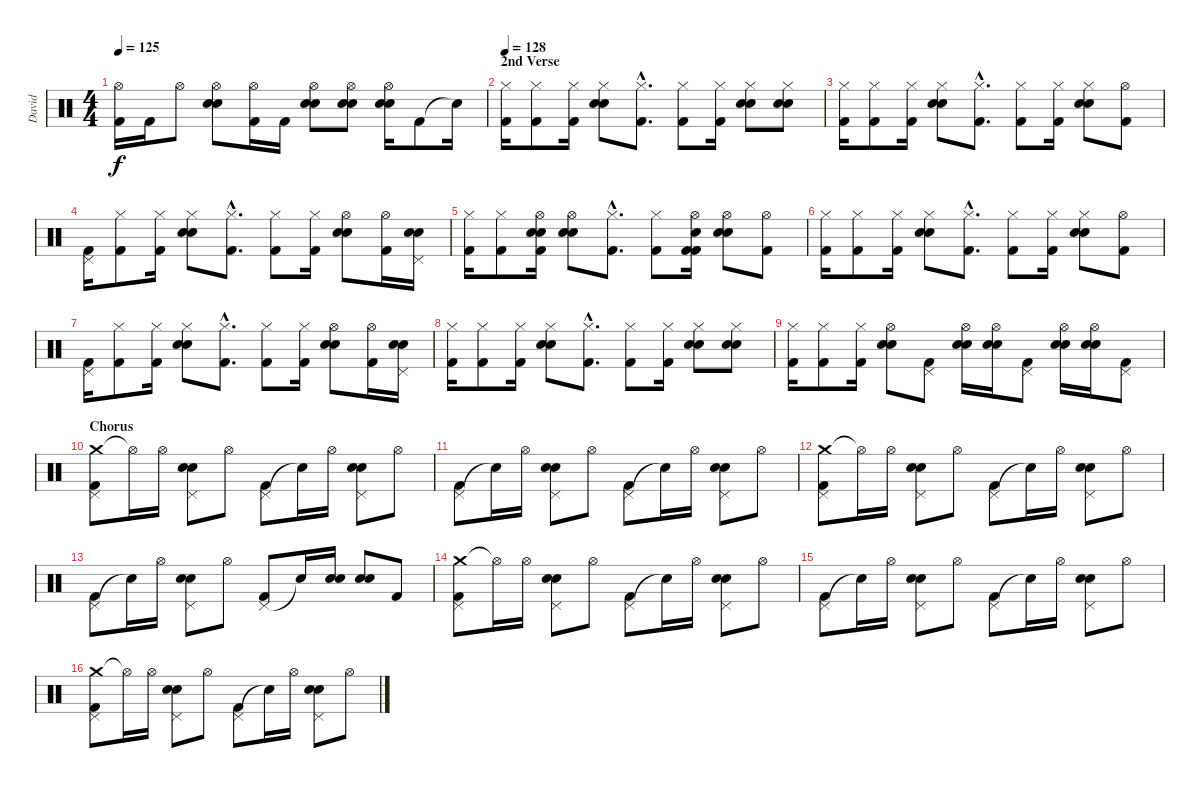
\track ("David" "David") {instrument percussion}
\staff {score}
\articulation defaults
\ts (4 4)
\tempo 125
\clef neutral
\ks c
("Hi-Hat (open)" "Kick (hit) 2").16{dy f} "Kick (hit) 2".16 "Hi-Hat (open)".8 ("Hi-Hat (open)" "Electric Snare (hit)" "Snare (hit) 2").8 ("Hi-Hat (open)" "Kick (hit) 2").16 "Kick (hit) 2".16 ("Hi-Hat (open)" "Electric Snare (hit)" "Snare (hit) 2").8 ("Hi-Hat (open)" "Electric Snare (hit)" "Snare (hit) 2").8 ("Hi-Hat (open)" "Electric Snare (hit)" "Snare (hit) 2").16 "Kick (hit) 2".8 "Snare (hit)"{t}.16 |
\section ("" "2nd Verse ")
\tempo 128
("Hi-Hat (closed)" "Kick (hit) 2").16 ("Hi-Hat (closed)" "Kick (hit) 2").8 ("Hi-Hat (closed)" "Kick (hit) 2").16 ("Hi-Hat (closed)" "Electric Snare (hit)" "Snare (hit) 2").8 ("Hi-Hat (closed)"{hac} "Kick (hit) 2"{hac}).8{d} ("Hi-Hat (closed)" "Kick (hit) 2").8 ("Hi-Hat (closed)" "Kick (hit) 2").16 ("Hi-Hat (closed)" "Electric Snare (hit)" "Snare (hit) 2").8 ("Hi-Hat (closed)" "Electric Snare (hit)" "Snare (hit) 2").8 |
("Hi-Hat (closed)" "Kick (hit) 2").16 ("Hi-Hat (closed)" "Kick (hit) 2").8 ("Hi-Hat (closed)" "Kick (hit) 2").16 ("Hi-Hat (closed)" "Electric Snare (hit)" "Snare (hit) 2").8 ("Hi-Hat (closed)"{hac} "Kick (hit) 2"{hac}).8{d} ("Hi-Hat (closed)" "Kick (hit) 2").8 ("Hi-Hat (closed)" "Kick (hit) 2").16 ("Hi-Hat (closed)" "Electric Snare (hit)" "Snare (hit) 2").8 ("Hi-Hat (open)" "Kick (hit) 2").8 |
("Pedal Hi-Hat (hit)" "Kick (hit) 2").16 ("Hi-Hat (closed)" "Kick (hit) 2").8 ("Hi-Hat (closed)" "Kick (hit) 2").16 ("Hi-Hat (closed)" "Electric Snare (hit)" "Snare (hit) 2").8 ("Hi-Hat (closed)"{hac} "Kick (hit) 2"{hac}).8{d} ("Hi-Hat (closed)" "Kick (hit) 2").8 ("Hi-Hat (closed)" "Kick (hit) 2").16 ("Hi-Hat (open)" "Electric Snare (hit)" "Snare (hit) 2").8 ("Hi-Hat (open)" "Kick (hit) 2").16 ("Pedal Hi-Hat (hit)" "Electric Snare (hit)" "Snare (hit) 2").16 |
("Hi-Hat (closed)" "Kick (hit) 2").16 ("Hi-Hat (closed)" "Kick (hit) 2").8 ("Snare (hit) 2" "Hi-Hat (open)" "Electric Snare (hit)" "Kick (hit) 2").16 ("Hi-Hat (open)" "Electric Snare (hit)" "Snare (hit) 2").8 ("Hi-Hat (closed)"{hac} "Kick (hit) 2"{hac}).8{d} ("Hi-Hat (closed)" "Kick (hit) 2").8 ("Kick (hit) 2" "Hi-Hat (open)" "Electric Snare (hit)" "Kick (hit) 2").16 ("Hi-Hat (open)" "Electric Snare (hit)" "Snare (hit) 2").8 ("Hi-Hat (open)" "Kick (hit) 2").8 |
("Hi-Hat (closed)" "Kick (hit) 2").16 ("Hi-Hat (closed)" "Kick (hit) 2").8 ("Hi-Hat (closed)" "Kick (hit) 2").16 ("Hi-Hat (closed)" "Electric Snare (hit)" "Snare (hit) 2").8 ("Hi-Hat (closed)"{hac} "Kick (hit) 2"{hac}).8{d} ("Hi-Hat (closed)" "Kick (hit) 2").8 ("Hi-Hat (closed)" "Kick (hit) 2").16 ("Hi-Hat (closed)" "Electric Snare (hit)" "Snare (hit) 2").8 ("Hi-Hat (open)" "Kick (hit) 2").8 |
("Pedal Hi-Hat (hit)" "Kick (hit) 2").16 ("Hi-Hat (closed)" "Kick (hit) 2").8 ("Hi-Hat (closed)" "Kick (hit) 2").16 ("Hi-Hat (closed)" "Electric Snare (hit)" "Snare (hit) 2").8 ("Hi-Hat (closed)"{hac} "Kick (hit) 2"{hac}).8{d} ("Hi-Hat (closed)" "Kick (hit) 2").8 ("Hi-Hat (closed)" "Kick (hit) 2").16 ("Hi-Hat (open)" "Electric Snare (hit)" "Snare (hit) 2").8 ("Hi-Hat (open)" "Kick (hit) 2").16 ("Pedal Hi-Hat (hit)" "Electric Snare (hit)" "Snare (hit) 2").16 |
("Hi-Hat (closed)" "Kick (hit) 2").16 ("Hi-Hat (closed)" "Kick (hit) 2").8 ("Hi-Hat (closed)" "Kick (hit) 2").16 ("Hi-Hat (closed)" "Electric Snare (hit)" "Snare (hit) 2").8 ("Hi-Hat (closed)"{hac} "Kick (hit) 2"{hac}).8{d} ("Hi-Hat (closed)" "Kick (hit) 2").8 ("Hi-Hat (closed)" "Kick (hit) 2").16 ("Hi-Hat (closed)" "Electric Snare (hit)" "Snare (hit) 2").8 ("Hi-Hat (closed)" "Electric Snare (hit)" "Snare (hit) 2").8 |
("Hi-Hat (closed)" "Kick (hit) 2").16 ("Hi-Hat (closed)" "Kick (hit) 2").8 ("Hi-Hat (closed)" "Kick (hit) 2").16 ("Hi-Hat (open)" "Electric Snare (hit)" "Snare (hit) 2").8 ("Pedal Hi-Hat (hit)" "Kick (hit) 2").8 ("Hi-Hat (open)" "Electric Snare (hit)" "Snare (hit) 2").16 ("Hi-Hat (open)" "Electric Snare (hit)" "Snare (hit) 2").16 ("Pedal Hi-Hat (hit)" "Kick (hit) 2").8 ("Hi-Hat (open)" "Electric Snare (hit)" "Snare (hit) 2").16 ("Hi-Hat (open)" "Electric Snare (hit)" "Snare (hit) 2").16 ("Pedal Hi-Hat (hit)" "Kick (hit) 2").8 |
\section ("" "Chorus")
("Crash medium (hit)" "Pedal Hi-Hat (hit)" "Kick (hit) 2").8 "Hi-Hat (open)"{t}.16 "Hi-Hat (open)".16 ("Electric Snare (hit)" "Snare (hit) 2" "Pedal Hi-Hat (hit)").8 "Hi-Hat (open)".8 ("Pedal Hi-Hat (hit)" "Kick (hit) 2").8 "Snare (hit)"{t}.16 "Hi-Hat (open)".16 ("Snare (hit) 2" "Electric Snare (hit)" "Pedal Hi-Hat (hit)").8 "Hi-Hat (open)".8 |
("Pedal Hi-Hat (hit)" "Kick (hit) 2").8 "Snare (hit)"{t}.16 "Hi-Hat (open)".16 ("Electric Snare (hit)" "Snare (hit) 2" "Pedal Hi-Hat (hit)").8 "Hi-Hat (open)".8 ("Pedal Hi-Hat (hit)" "Kick (hit) 2").8 "Snare (hit)"{t}.16 "Hi-Hat (open)".16 ("Snare (hit) 2" "Electric Snare (hit)" "Pedal Hi-Hat (hit)").8 "Hi-Hat (open)".8 |
("Crash medium (hit)" "Pedal Hi-Hat (hit)" "Kick (hit) 2").8 "Hi-Hat (open)"{t}.16 "Hi-Hat (open)".16 ("Electric Snare (hit)" "Snare (hit) 2" "Pedal Hi-Hat (hit)").8 "Hi-Hat (open)".8 ("Pedal Hi-Hat (hit)" "Kick (hit) 2").8 "Snare (hit)"{t}.16 "Hi-Hat (open)".16 ("Snare (hit) 2" "Electric Snare (hit)" "Pedal Hi-Hat (hit)").8 "Hi-Hat (open)".8 |
("Pedal Hi-Hat (hit)" "Kick (hit) 2").8 "Snare (hit)"{t}.16 "Hi-Hat (open)".16 ("Electric Snare (hit)" "Snare (hit) 2" "Pedal Hi-Hat (hit)").8 "Hi-Hat (open)".8 ("Pedal Hi-Hat (hit)" "Kick (hit) 2").8 "Snare (hit)"{t}.16 ("Snare (hit) 2" "Electric Snare (hit)").16 ("Snare (hit) 2" "Electric Snare (hit)").8 "Kick (hit) 2".8 |
("Crash medium (hit)" "Pedal Hi-Hat (hit)" "Kick (hit) 2").8 "Hi-Hat (open)"{t}.16 "Hi-Hat (open)".16 ("Electric Snare (hit)" "Snare (hit) 2" "Pedal Hi-Hat (hit)").8 "Hi-Hat (open)".8 ("Pedal Hi-Hat (hit)" "Kick (hit) 2").8 "Snare (hit)"{t}.16 "Hi-Hat (open)".16 ("Snare (hit) 2" "Electric Snare (hit)" "Pedal Hi-Hat (hit)").8 "Hi-Hat (open)".8 |
("Pedal Hi-Hat (hit)" "Kick (hit) 2").8 "Snare (hit)"{t}.16 "Hi-Hat (open)".16 ("Electric Snare (hit)" "Snare (hit) 2" "Pedal Hi-Hat (hit)").8 "Hi-Hat (open)".8 ("Pedal Hi-Hat (hit)" "Kick (hit) 2").8 "Snare (hit)"{t}.16 "Hi-Hat (open)".16 ("Snare (hit) 2" "Electric Snare (hit)" "Pedal Hi-Hat (hit)").8 "Hi-Hat (open)".8 |
("Crash medium (hit)" "Pedal Hi-Hat (hit)" "Kick (hit) 2").8 "Hi-Hat (open)"{t}.16 "Hi-Hat (open)".16 ("Electric Snare (hit)" "Snare (hit) 2" "Pedal Hi-Hat (hit)").8 "Hi-Hat (open)".8 ("Pedal Hi-Hat (hit)" "Kick (hit) 2").8 "Snare (hit)"{t}.16 "Hi-Hat (open)".16 ("Snare (hit) 2" "Electric Snare (hit)" "Pedal Hi-Hat (hit)").8 "Hi-Hat (open)".8
